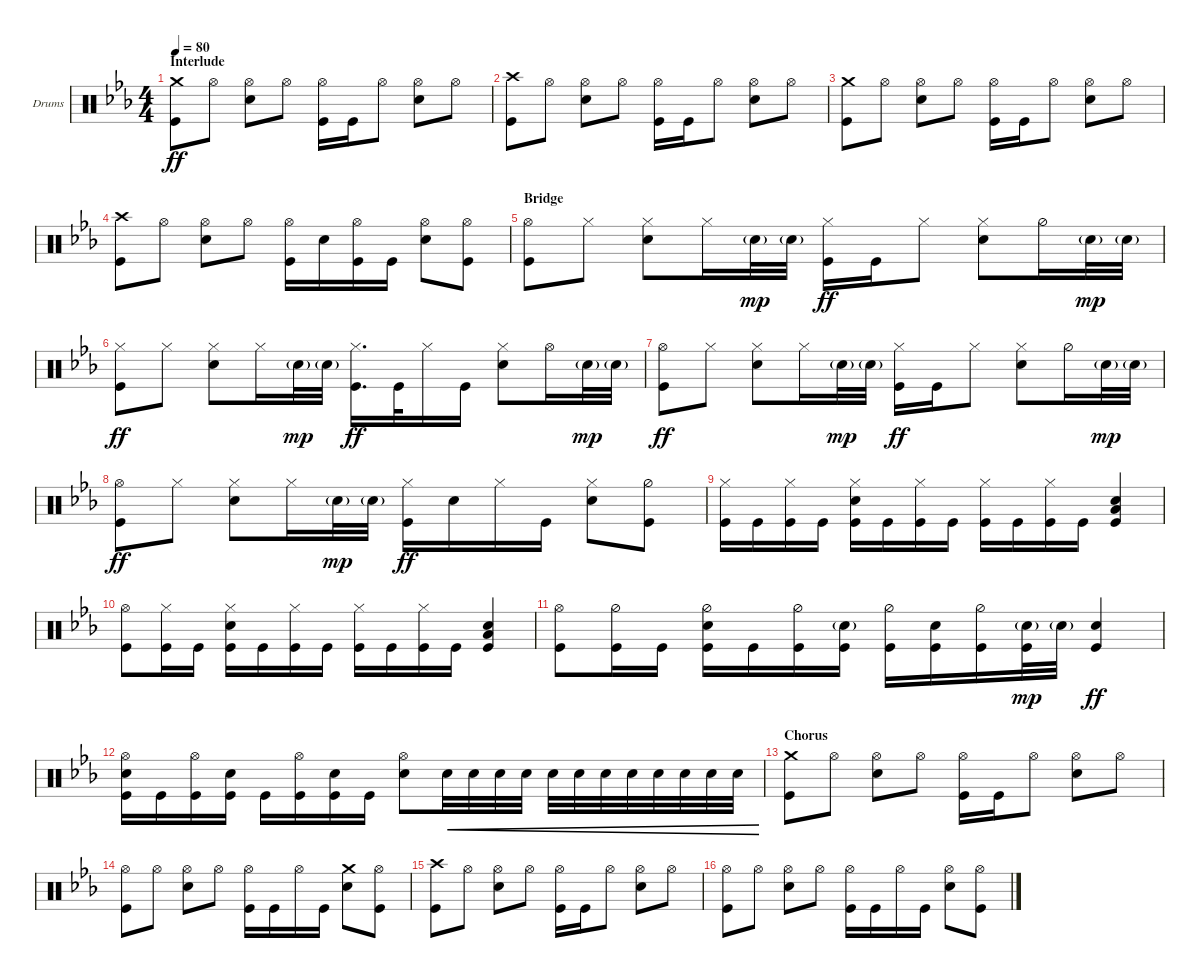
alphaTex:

\defaultSystemsLayout 4
\bracketExtendMode groupsimilarinstruments
\firstSystemTrackNameOrientation horizontal
\otherSystemsTrackNameOrientation horizontal
\track ("Mario Goossens" "Drums") {instrument percussion}
\staff {score}
\articulation defaults
\ts (4 4)
\section ("" "Interlude")
\tempo 80
\clef neutral
\ks cminor
("Kick (hit)" "Crash medium (hit)").8{dy ff} "Hi-Hat (open)".8 ("Hi-Hat (open)" "Snare (hit) 2").8 "Hi-Hat (open)".8 ("Kick (hit)" "Hi-Hat (open)").16 "Kick (hit)".16 "Hi-Hat (open)".8 ("Hi-Hat (open)" "Snare (hit) 2").8 "Hi-Hat (open)".8 |
("Kick (hit)" "Crash high (hit)").8 "Hi-Hat (open)".8 ("Hi-Hat (open)" "Snare (hit) 2").8 "Hi-Hat (open)".8 ("Kick (hit)" "Hi-Hat (open)").16 "Kick (hit)".16 "Hi-Hat (open)".8 ("Hi-Hat (open)" "Snare (hit) 2").8 "Hi-Hat (open)".8 |
("Kick (hit)" "Crash medium (hit)").8 "Hi-Hat (open)".8 ("Hi-Hat (open)" "Snare (hit) 2").8 "Hi-Hat (open)".8 ("Kick (hit)" "Hi-Hat (open)").16 "Kick (hit)".16 "Hi-Hat (open)".8 ("Hi-Hat (open)" "Snare (hit) 2").8 "Hi-Hat (open)".8 |
("Kick (hit)" "Crash high (hit)").8 "Hi-Hat (open)".8 ("Hi-Hat (open)" "Snare (hit) 2").8 "Hi-Hat (open)".8 ("Kick (hit)" "Hi-Hat (open)").16 "Snare (hit) 2".16 ("Hi-Hat (open)" "Kick (hit)").16 "Kick (hit)".16 ("Hi-Hat (open)" "Snare (hit) 2").8 ("Hi-Hat (open)" "Kick (hit)").8 |
\section ("" "Bridge")
("Kick (hit)" "Hi-Hat (open)").8 "Hi-Hat (closed)".8 ("Hi-Hat (closed)" "Snare (hit) 2").8 "Hi-Hat (closed)".16 "Snare (hit) 2"{g}.32{dy mp} "Snare (hit) 2"{g}.32 ("Kick (hit)" "Hi-Hat (closed)").16{dy ff} "Kick (hit)".16 "Hi-Hat (closed)".8 ("Hi-Hat (closed)" "Snare (hit) 2").8 "Hi-Hat (half)".16 "Snare (hit) 2"{g}.32{dy mp} "Snare (hit) 2"{g}.32 |
("Kick (hit)" "Hi-Hat (closed)").8{dy ff} "Hi-Hat (closed)".8 ("Hi-Hat (closed)" "Snare (hit) 2").8 "Hi-Hat (closed)".16 "Snare (hit) 2"{g}.32{dy mp} "Snare (hit) 2"{g}.32 ("Kick (hit)" "Hi-Hat (closed)").16{d dy ff} "Kick (hit)".32 "Hi-Hat (closed)".16 "Kick (hit)".16 ("Hi-Hat (closed)" "Snare (hit) 2").8 "Hi-Hat (open)".16 "Snare (hit) 2"{g}.32{dy mp} "Snare (hit) 2"{g}.32 |
("Kick (hit)" "Hi-Hat (open)").8{dy ff} "Hi-Hat (closed)".8 ("Hi-Hat (closed)" "Snare (hit) 2").8 "Hi-Hat (closed)".16 "Snare (hit) 2"{g}.32{dy mp} "Snare (hit) 2"{g}.32 ("Kick (hit)" "Hi-Hat (closed)").16{dy ff} "Kick (hit)".16 "Hi-Hat (closed)".8 ("Hi-Hat (closed)" "Snare (hit) 2").8 "Hi-Hat (half)".16 "Snare (hit) 2"{g}.32{dy mp} "Snare (hit) 2"{g}.32 |
("Kick (hit)" "Hi-Hat (open)").8{dy ff} "Hi-Hat (closed)".8 ("Hi-Hat (closed)" "Snare (hit) 2").8 "Hi-Hat (closed)".16 "Snare (hit) 2"{g}.32{dy mp} "Snare (hit) 2"{g}.32 ("Kick (hit)" "Hi-Hat (closed)").16{dy ff} "Snare (hit) 2".16 "Hi-Hat (closed)".16 "Kick (hit)".16 ("Hi-Hat (closed)" "Snare (hit) 2").8 ("Hi-Hat (half)" "Kick (hit)").8 |
("Kick (hit)" "Hi-Hat (closed)").16 "Kick (hit)".16 ("Kick (hit)" "Hi-Hat (closed)").16 "Kick (hit)".16 ("Snare (hit) 2" "Hi-Hat (closed)" "Kick (hit)").16 "Kick (hit)".16 ("Kick (hit)" "Hi-Hat (closed)").16 "Kick (hit)".16 ("Kick (hit)" "Hi-Hat (closed)").16 "Kick (hit)".16 ("Kick (hit)" "Hi-Hat (closed)").16 "Kick (hit)".16 ("Snare (hit) 2" "Kick (hit)" "Low Tom (hit)").4 |
("Kick (hit)" "Hi-Hat (open)").8 ("Kick (hit)" "Hi-Hat (closed)").16 "Kick (hit)".16 ("Snare (hit) 2" "Hi-Hat (closed)" "Kick (hit)").16 "Kick (hit)".16 ("Kick (hit)" "Hi-Hat (closed)").16 "Kick (hit)".16 ("Kick (hit)" "Hi-Hat (closed)").16 "Kick (hit)".16 ("Kick (hit)" "Hi-Hat (closed)").16 "Kick (hit)".16 ("Snare (hit) 2" "Kick (hit)" "Low Tom (hit)").4 |
("Kick (hit)" "Hi-Hat (open)").8 ("Kick (hit)" "Hi-Hat (half)").16 "Kick (hit)".16 ("Snare (hit) 2" "Hi-Hat (half)" "Kick (hit)").16 "Kick (hit)".16 ("Kick (hit)" "Hi-Hat (half)").16 ("Kick (hit)" "Snare (hit) 2"{g}).16 ("Kick (hit)" "Hi-Hat (half)").16 ("Kick (hit)" "Snare (hit) 2").16 ("Kick (hit)" "Hi-Hat (half)").16 ("Kick (hit)" "Snare (hit) 2"{g}).32{dy mp} "Snare (hit) 2"{g}.32 ("Snare (hit) 2" "Kick (hit)").4{dy ff} |
("Kick (hit)" "Hi-Hat (open)" "Snare (hit) 2").16 "Kick (hit)".16 ("Kick (hit)" "Hi-Hat (open)").16 ("Kick (hit)" "Snare (hit) 2").16 "Kick (hit)".16 ("Kick (hit)" "Hi-Hat (open)").16 ("Kick (hit)" "Snare (hit) 2").16 "Kick (hit)".16 ("Snare (hit) 2" "Hi-Hat (open)").8 "Snare (hit) 2".32{cre} "Snare (hit) 2".32{cre} "Snare (hit) 2".32{cre} "Snare (hit) 2".32{cre} "Snare (hit) 2".32{cre} "Snare (hit) 2".32{cre} "Snare (hit) 2".32{cre} "Snare (hit) 2".32{cre} "Snare (hit) 2".32{cre} "Snare (hit) 2".32{cre} "Snare (hit) 2".32{cre} "Snare (hit) 2".32{cre} |
\section ("" "Chorus")
("Kick (hit)" "Crash medium (hit)").8 "Hi-Hat (open)".8 ("Hi-Hat (open)" "Snare (hit) 2").8 "Hi-Hat (open)".8 ("Kick (hit)" "Hi-Hat (open)").16 "Kick (hit)".16 "Hi-Hat (open)".8 ("Hi-Hat (open)" "Snare (hit) 2").8 "Hi-Hat (open)".8 |
("Kick (hit)" "Hi-Hat (open)").8 "Hi-Hat (open)".8 ("Hi-Hat (open)" "Snare (hit) 2").8 "Hi-Hat (open)".8 ("Kick (hit)" "Hi-Hat (open)").16 "Kick (hit)".16 "Hi-Hat (open)".16 "Kick (hit)".16 ("Snare (hit) 2" "Crash medium (hit)").8 ("Hi-Hat (open)" "Kick (hit)").8 |
("Kick (hit)" "Crash high (hit)").8 "Hi-Hat (open)".8 ("Hi-Hat (open)" "Snare (hit) 2").8 "Hi-Hat (open)".8 ("Kick (hit)" "Hi-Hat (open)").16 "Kick (hit)".16 "Hi-Hat (open)".8 ("Hi-Hat (open)" "Snare (hit) 2").8 "Hi-Hat (open)".8 |
("Kick (hit)" "Hi-Hat (open)").8 "Hi-Hat (open)".8 ("Hi-Hat (open)" "Snare (hit) 2").8 "Hi-Hat (open)".8 ("Kick (hit)" "Hi-Hat (open)").16 "Kick (hit)".16 "Hi-Hat (open)".16 "Kick (hit)".16 ("Snare (hit) 2" "Hi-Hat (open)").8 ("Hi-Hat (open)" "Kick (hit)").8
